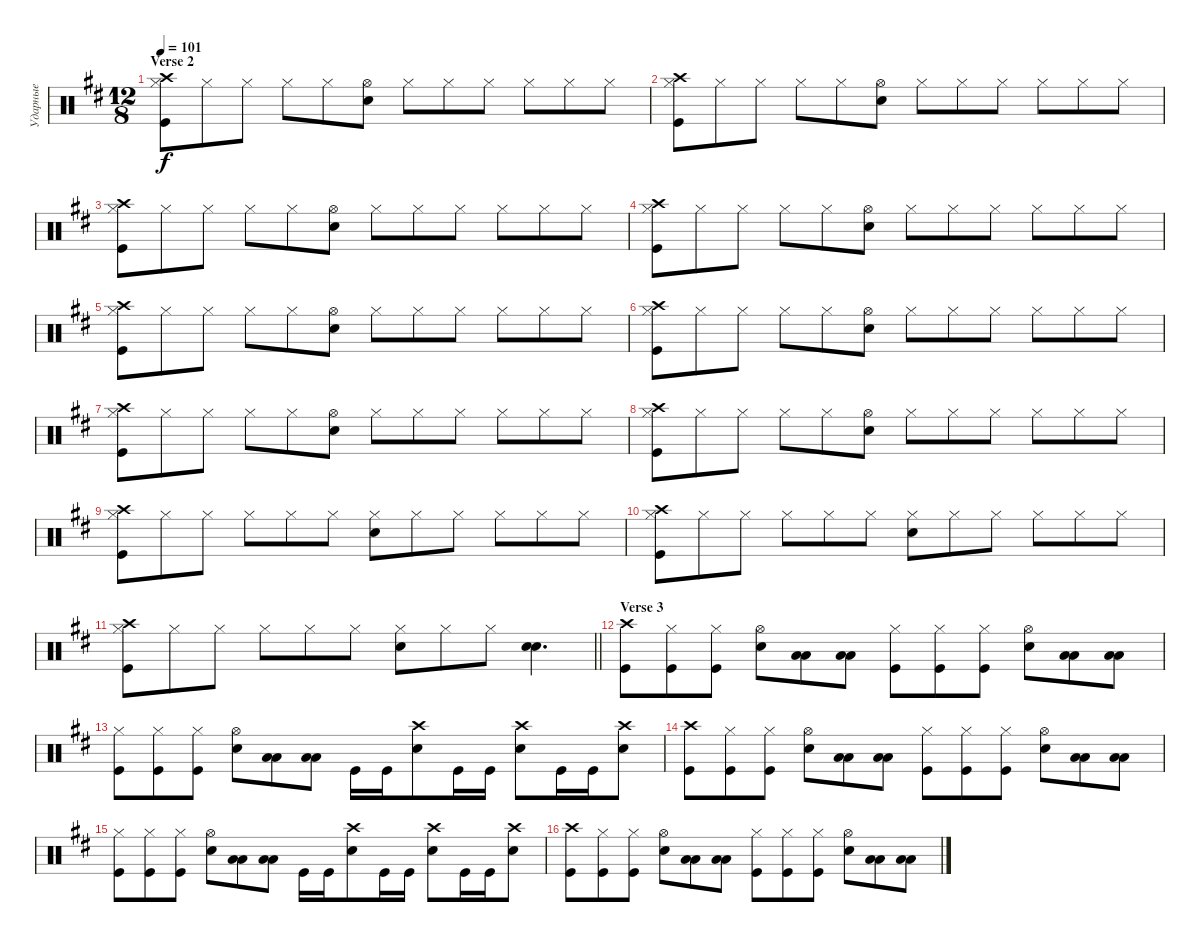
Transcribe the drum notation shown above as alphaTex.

\track ("Ударные" "Ударные") {instrument percussion}
\staff {score}
\articulation defaults
\ts (12 8)
\section ("" "Verse 2")
\tempo 101
\clef neutral
\ks bminor
("Kick (hit)" "Hi-Hat (closed)" "Crash high (hit)").8{dy f} "Hi-Hat (closed)".8 "Hi-Hat (closed)".8 "Hi-Hat (closed)".8 "Hi-Hat (closed)".8 ("Hi-Hat (open)" "Snare (hit) 2").8 "Hi-Hat (closed)".8 "Hi-Hat (closed)".8 "Hi-Hat (closed)".8 "Hi-Hat (closed)".8 "Hi-Hat (closed)".8 "Hi-Hat (closed)".8 |
("Kick (hit)" "Hi-Hat (closed)" "Crash high (hit)").8 "Hi-Hat (closed)".8 "Hi-Hat (closed)".8 "Hi-Hat (closed)".8 "Hi-Hat (closed)".8 ("Hi-Hat (open)" "Snare (hit) 2").8 "Hi-Hat (closed)".8 "Hi-Hat (closed)".8 "Hi-Hat (closed)".8 "Hi-Hat (closed)".8 "Hi-Hat (closed)".8 "Hi-Hat (closed)".8 |
("Kick (hit)" "Hi-Hat (closed)" "Crash high (hit)").8 "Hi-Hat (closed)".8 "Hi-Hat (closed)".8 "Hi-Hat (closed)".8 "Hi-Hat (closed)".8 ("Hi-Hat (open)" "Snare (hit) 2").8 "Hi-Hat (closed)".8 "Hi-Hat (closed)".8 "Hi-Hat (closed)".8 "Hi-Hat (closed)".8 "Hi-Hat (closed)".8 "Hi-Hat (closed)".8 |
("Kick (hit)" "Hi-Hat (closed)" "Crash high (hit)").8 "Hi-Hat (closed)".8 "Hi-Hat (closed)".8 "Hi-Hat (closed)".8 "Hi-Hat (closed)".8 ("Hi-Hat (open)" "Snare (hit) 2").8 "Hi-Hat (closed)".8 "Hi-Hat (closed)".8 "Hi-Hat (closed)".8 "Hi-Hat (closed)".8 "Hi-Hat (closed)".8 "Hi-Hat (closed)".8 |
("Kick (hit)" "Hi-Hat (closed)" "Crash high (hit)").8 "Hi-Hat (closed)".8 "Hi-Hat (closed)".8 "Hi-Hat (closed)".8 "Hi-Hat (closed)".8 ("Hi-Hat (open)" "Snare (hit) 2").8 "Hi-Hat (closed)".8 "Hi-Hat (closed)".8 "Hi-Hat (closed)".8 "Hi-Hat (closed)".8 "Hi-Hat (closed)".8 "Hi-Hat (closed)".8 |
("Kick (hit)" "Hi-Hat (closed)" "Crash high (hit)").8 "Hi-Hat (closed)".8 "Hi-Hat (closed)".8 "Hi-Hat (closed)".8 "Hi-Hat (closed)".8 ("Hi-Hat (open)" "Snare (hit) 2").8 "Hi-Hat (closed)".8 "Hi-Hat (closed)".8 "Hi-Hat (closed)".8 "Hi-Hat (closed)".8 "Hi-Hat (closed)".8 "Hi-Hat (closed)".8 |
("Kick (hit)" "Hi-Hat (closed)" "Crash high (hit)").8 "Hi-Hat (closed)".8 "Hi-Hat (closed)".8 "Hi-Hat (closed)".8 "Hi-Hat (closed)".8 ("Hi-Hat (open)" "Snare (hit) 2").8 "Hi-Hat (closed)".8 "Hi-Hat (closed)".8 "Hi-Hat (closed)".8 "Hi-Hat (closed)".8 "Hi-Hat (closed)".8 "Hi-Hat (closed)".8 |
("Kick (hit)" "Hi-Hat (closed)" "Crash high (hit)").8 "Hi-Hat (closed)".8 "Hi-Hat (closed)".8 "Hi-Hat (closed)".8 "Hi-Hat (closed)".8 ("Hi-Hat (open)" "Snare (hit) 2").8 "Hi-Hat (closed)".8 "Hi-Hat (closed)".8 "Hi-Hat (closed)".8 "Hi-Hat (closed)".8 "Hi-Hat (closed)".8 "Hi-Hat (closed)".8 |
("Kick (hit)" "Crash high (hit)" "Hi-Hat (closed)").8 "Hi-Hat (closed)".8 "Hi-Hat (closed)".8 "Hi-Hat (closed)".8 "Hi-Hat (closed)".8 "Hi-Hat (closed)".8 ("Hi-Hat (closed)" "Snare (hit) 2").8 "Hi-Hat (closed)".8 "Hi-Hat (closed)".8 "Hi-Hat (closed)".8 "Hi-Hat (closed)".8 "Hi-Hat (closed)".8 |
("Kick (hit)" "Crash high (hit)" "Hi-Hat (closed)").8 "Hi-Hat (closed)".8 "Hi-Hat (closed)".8 "Hi-Hat (closed)".8 "Hi-Hat (closed)".8 "Hi-Hat (closed)".8 ("Hi-Hat (closed)" "Snare (hit) 2").8 "Hi-Hat (closed)".8 "Hi-Hat (closed)".8 "Hi-Hat (closed)".8 "Hi-Hat (closed)".8 "Hi-Hat (closed)".8 |
\barLineRight lightlight
("Kick (hit)" "Crash high (hit)" "Hi-Hat (closed)").8 "Hi-Hat (closed)".8 "Hi-Hat (closed)".8 "Hi-Hat (closed)".8 "Hi-Hat (closed)".8 "Hi-Hat (closed)".8 ("Hi-Hat (closed)" "Snare (hit) 2").8 "Hi-Hat (closed)".8 "Hi-Hat (closed)".8 ("Snare (hit) 2" "Snare (hit) 2").4{d bd 240} |
\section ("" "Verse 3")
("Kick (hit)" "Crash high (hit)").8 ("Kick (hit)" "Hi-Hat (closed)").8 ("Kick (hit)" "Hi-Hat (closed)").8 ("Snare (hit) 2" "Hi-Hat (open)").8 ("Low Tom (hit)" "Low Tom (hit)").8{bd 240} ("Low Tom (hit)" "Low Tom (hit)").8{bd 240} ("Kick (hit)" "Hi-Hat (closed)").8 ("Kick (hit)" "Hi-Hat (closed)").8 ("Kick (hit)" "Hi-Hat (closed)").8 ("Snare (hit) 2" "Hi-Hat (open)").8 ("Low Tom (hit)" "Low Tom (hit)").8{bd 240} ("Low Tom (hit)" "Low Tom (hit)").8{bd 240} |
("Kick (hit)" "Hi-Hat (closed)").8 ("Kick (hit)" "Hi-Hat (closed)").8 ("Kick (hit)" "Hi-Hat (closed)").8 ("Snare (hit) 2" "Hi-Hat (open)").8 ("Low Tom (hit)" "Low Tom (hit)").8{bd 240} ("Low Tom (hit)" "Low Tom (hit)").8{bd 240} "Kick (hit)".16 "Kick (hit)".16 ("Snare (hit) 2" "Crash high (hit)").8 "Kick (hit)".16 "Kick (hit)".16 ("Snare (hit) 2" "Crash high (hit)").8 "Kick (hit)".16 "Kick (hit)".16 ("Snare (hit) 2" "Crash high (hit)").8 |
("Kick (hit)" "Crash high (hit)").8 ("Kick (hit)" "Hi-Hat (closed)").8 ("Kick (hit)" "Hi-Hat (closed)").8 ("Snare (hit) 2" "Hi-Hat (open)").8 ("Low Tom (hit)" "Low Tom (hit)").8{bd 240} ("Low Tom (hit)" "Low Tom (hit)").8{bd 240} ("Kick (hit)" "Hi-Hat (closed)").8 ("Kick (hit)" "Hi-Hat (closed)").8 ("Kick (hit)" "Hi-Hat (closed)").8 ("Snare (hit) 2" "Hi-Hat (open)").8 ("Low Tom (hit)" "Low Tom (hit)").8{bd 240} ("Low Tom (hit)" "Low Tom (hit)").8{bd 240} |
("Kick (hit)" "Hi-Hat (closed)").8 ("Kick (hit)" "Hi-Hat (closed)").8 ("Kick (hit)" "Hi-Hat (closed)").8 ("Snare (hit) 2" "Hi-Hat (open)").8 ("Low Tom (hit)" "Low Tom (hit)").8{bd 240} ("Low Tom (hit)" "Low Tom (hit)").8{bd 240} "Kick (hit)".16 "Kick (hit)".16 ("Snare (hit) 2" "Crash high (hit)").8 "Kick (hit)".16 "Kick (hit)".16 ("Snare (hit) 2" "Crash high (hit)").8 "Kick (hit)".16 "Kick (hit)".16 ("Snare (hit) 2" "Crash high (hit)").8 |
("Kick (hit)" "Crash high (hit)").8 ("Kick (hit)" "Hi-Hat (closed)").8 ("Kick (hit)" "Hi-Hat (closed)").8 ("Snare (hit) 2" "Hi-Hat (open)").8 ("Low Tom (hit)" "Low Tom (hit)").8{bd 240} ("Low Tom (hit)" "Low Tom (hit)").8{bd 240} ("Kick (hit)" "Hi-Hat (closed)").8 ("Kick (hit)" "Hi-Hat (closed)").8 ("Kick (hit)" "Hi-Hat (closed)").8 ("Snare (hit) 2" "Hi-Hat (open)").8 ("Low Tom (hit)" "Low Tom (hit)").8{bd 240} ("Low Tom (hit)" "Low Tom (hit)").8{bd 240}
